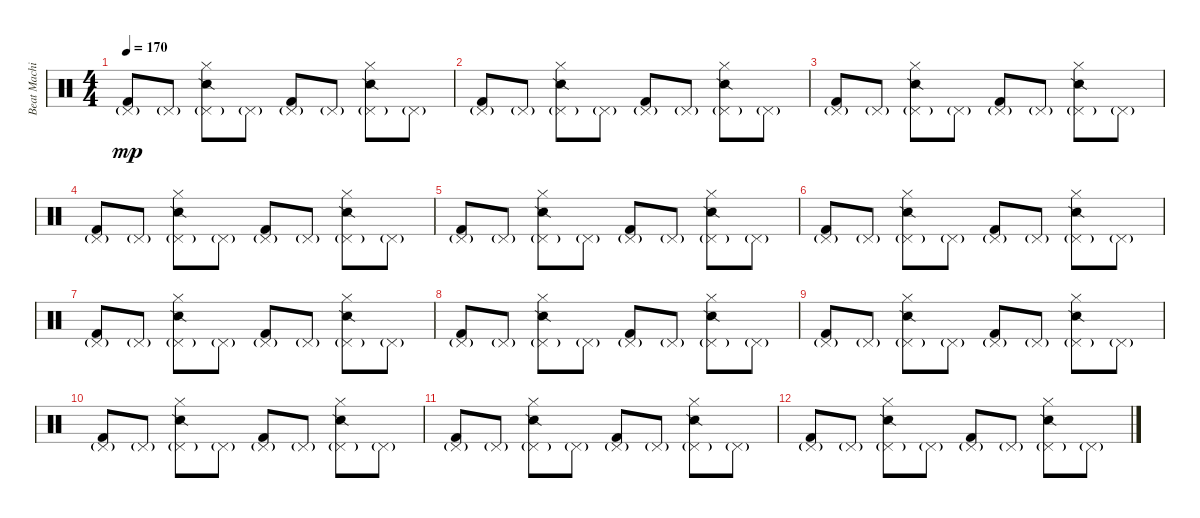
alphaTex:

\track ("Beat Machine" "Beat Machi") {instrument percussion}
\staff {score}
\articulation defaults
\ts (4 4)
\tempo 170
\clef neutral
\ks c
("Pedal Hi-Hat (hit)"{g} "Kick (hit) 2").8{dy mp} "Pedal Hi-Hat (hit)"{g}.8 ("Pedal Hi-Hat (hit)"{g} "Snare (side stick) 2" "Hi-Hat (closed)").8 "Pedal Hi-Hat (hit)"{g}.8 ("Pedal Hi-Hat (hit)"{g} "Kick (hit) 2").8 "Pedal Hi-Hat (hit)"{g}.8 ("Pedal Hi-Hat (hit)"{g} "Snare (side stick) 2" "Hi-Hat (closed)").8 "Pedal Hi-Hat (hit)"{g}.8 |
("Pedal Hi-Hat (hit)"{g} "Kick (hit) 2").8 "Pedal Hi-Hat (hit)"{g}.8 ("Pedal Hi-Hat (hit)"{g} "Snare (side stick) 2" "Hi-Hat (closed)").8 "Pedal Hi-Hat (hit)"{g}.8 ("Pedal Hi-Hat (hit)"{g} "Kick (hit) 2").8 "Pedal Hi-Hat (hit)"{g}.8 ("Pedal Hi-Hat (hit)"{g} "Snare (side stick) 2" "Hi-Hat (closed)").8 "Pedal Hi-Hat (hit)"{g}.8 |
("Pedal Hi-Hat (hit)"{g} "Kick (hit) 2").8 "Pedal Hi-Hat (hit)"{g}.8 ("Pedal Hi-Hat (hit)"{g} "Snare (side stick) 2" "Hi-Hat (closed)").8 "Pedal Hi-Hat (hit)"{g}.8 ("Pedal Hi-Hat (hit)"{g} "Kick (hit) 2").8 "Pedal Hi-Hat (hit)"{g}.8 ("Pedal Hi-Hat (hit)"{g} "Snare (side stick) 2" "Hi-Hat (closed)").8 "Pedal Hi-Hat (hit)"{g}.8 |
("Pedal Hi-Hat (hit)"{g} "Kick (hit) 2").8 "Pedal Hi-Hat (hit)"{g}.8 ("Pedal Hi-Hat (hit)"{g} "Snare (side stick) 2" "Hi-Hat (closed)").8 "Pedal Hi-Hat (hit)"{g}.8 ("Pedal Hi-Hat (hit)"{g} "Kick (hit) 2").8 "Pedal Hi-Hat (hit)"{g}.8 ("Pedal Hi-Hat (hit)"{g} "Snare (side stick) 2" "Hi-Hat (closed)").8 "Pedal Hi-Hat (hit)"{g}.8 |
("Pedal Hi-Hat (hit)"{g} "Kick (hit) 2").8 "Pedal Hi-Hat (hit)"{g}.8 ("Pedal Hi-Hat (hit)"{g} "Snare (side stick) 2" "Hi-Hat (closed)").8 "Pedal Hi-Hat (hit)"{g}.8 ("Pedal Hi-Hat (hit)"{g} "Kick (hit) 2").8 "Pedal Hi-Hat (hit)"{g}.8 ("Pedal Hi-Hat (hit)"{g} "Snare (side stick) 2" "Hi-Hat (closed)").8 "Pedal Hi-Hat (hit)"{g}.8 |
("Pedal Hi-Hat (hit)"{g} "Kick (hit) 2").8 "Pedal Hi-Hat (hit)"{g}.8 ("Pedal Hi-Hat (hit)"{g} "Snare (side stick) 2" "Hi-Hat (closed)").8 "Pedal Hi-Hat (hit)"{g}.8 ("Pedal Hi-Hat (hit)"{g} "Kick (hit) 2").8 "Pedal Hi-Hat (hit)"{g}.8 ("Pedal Hi-Hat (hit)"{g} "Snare (side stick) 2" "Hi-Hat (closed)").8 "Pedal Hi-Hat (hit)"{g}.8 |
("Pedal Hi-Hat (hit)"{g} "Kick (hit) 2").8 "Pedal Hi-Hat (hit)"{g}.8 ("Pedal Hi-Hat (hit)"{g} "Snare (side stick) 2" "Hi-Hat (closed)").8 "Pedal Hi-Hat (hit)"{g}.8 ("Pedal Hi-Hat (hit)"{g} "Kick (hit) 2").8 "Pedal Hi-Hat (hit)"{g}.8 ("Pedal Hi-Hat (hit)"{g} "Snare (side stick) 2" "Hi-Hat (closed)").8 "Pedal Hi-Hat (hit)"{g}.8 |
("Pedal Hi-Hat (hit)"{g} "Kick (hit) 2").8 "Pedal Hi-Hat (hit)"{g}.8 ("Pedal Hi-Hat (hit)"{g} "Snare (side stick) 2" "Hi-Hat (closed)").8 "Pedal Hi-Hat (hit)"{g}.8 ("Pedal Hi-Hat (hit)"{g} "Kick (hit) 2").8 "Pedal Hi-Hat (hit)"{g}.8 ("Pedal Hi-Hat (hit)"{g} "Snare (side stick) 2" "Hi-Hat (closed)").8 "Pedal Hi-Hat (hit)"{g}.8 |
("Pedal Hi-Hat (hit)"{g} "Kick (hit) 2").8 "Pedal Hi-Hat (hit)"{g}.8 ("Pedal Hi-Hat (hit)"{g} "Snare (side stick) 2" "Hi-Hat (closed)").8 "Pedal Hi-Hat (hit)"{g}.8 ("Pedal Hi-Hat (hit)"{g} "Kick (hit) 2").8 "Pedal Hi-Hat (hit)"{g}.8 ("Pedal Hi-Hat (hit)"{g} "Snare (side stick) 2" "Hi-Hat (closed)").8 "Pedal Hi-Hat (hit)"{g}.8 |
("Pedal Hi-Hat (hit)"{g} "Kick (hit) 2").8 "Pedal Hi-Hat (hit)"{g}.8 ("Pedal Hi-Hat (hit)"{g} "Snare (side stick) 2" "Hi-Hat (closed)").8 "Pedal Hi-Hat (hit)"{g}.8 ("Pedal Hi-Hat (hit)"{g} "Kick (hit) 2").8 "Pedal Hi-Hat (hit)"{g}.8 ("Pedal Hi-Hat (hit)"{g} "Snare (side stick) 2" "Hi-Hat (closed)").8 "Pedal Hi-Hat (hit)"{g}.8 |
("Pedal Hi-Hat (hit)"{g} "Kick (hit) 2").8 "Pedal Hi-Hat (hit)"{g}.8 ("Pedal Hi-Hat (hit)"{g} "Snare (side stick) 2" "Hi-Hat (closed)").8 "Pedal Hi-Hat (hit)"{g}.8 ("Pedal Hi-Hat (hit)"{g} "Kick (hit) 2").8 "Pedal Hi-Hat (hit)"{g}.8 ("Pedal Hi-Hat (hit)"{g} "Snare (side stick) 2" "Hi-Hat (closed)").8 "Pedal Hi-Hat (hit)"{g}.8 |
("Pedal Hi-Hat (hit)"{g} "Kick (hit) 2").8 "Pedal Hi-Hat (hit)"{g}.8 ("Pedal Hi-Hat (hit)"{g} "Snare (side stick) 2" "Hi-Hat (closed)").8 "Pedal Hi-Hat (hit)"{g}.8 ("Pedal Hi-Hat (hit)"{g} "Kick (hit) 2").8 "Pedal Hi-Hat (hit)"{g}.8 ("Pedal Hi-Hat (hit)"{g} "Snare (side stick) 2" "Hi-Hat (closed)").8 "Pedal Hi-Hat (hit)"{g}.8
